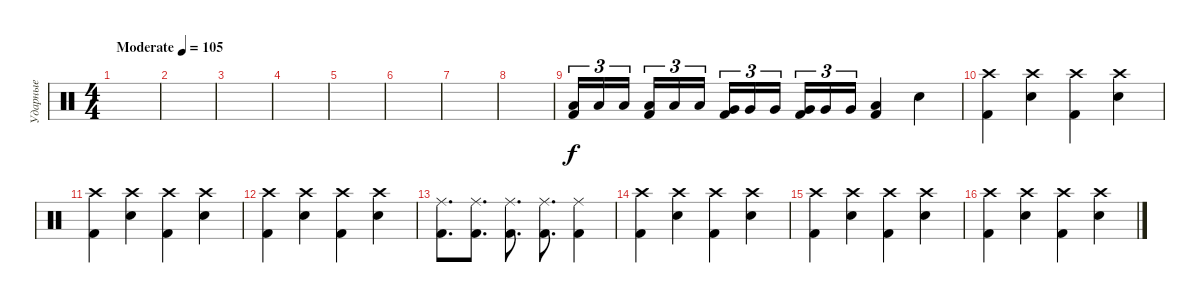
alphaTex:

\track ("Ударные" "Ударные") {instrument percussion}
\staff {score}
\articulation defaults
\ts (4 4)
\tempo (105 "Moderate")
\clef neutral
\ks c
|
|
|
|
|
|
|
|
("Kick (hit) 2" "Low Tom (hit)").16{tu (3 2)} "Low Tom (hit)".16{tu (3 2)} "Low Tom (hit)".16{tu (3 2) beam splitsecondary} ("Kick (hit) 2" "Low Tom (hit)").16{tu (3 2)} "Low Tom (hit)".16{tu (3 2)} "Low Tom (hit)".16{tu (3 2)} ("Kick (hit) 2" "Very Low Tom (hit)").16{tu (3 2)} "Very Low Tom (hit)".16{tu (3 2)} "Very Low Tom (hit)".16{tu (3 2) beam splitsecondary} ("Kick (hit) 2" "Very Low Tom (hit)").16{tu (3 2)} "Very Low Tom (hit)".16{tu (3 2)} "Very Low Tom (hit)".16{tu (3 2)} ("Kick (hit) 2" "Low Floor Tom (hit)").4 "Electric Snare (hit)".4 |
("Crash high (hit)" "Kick (hit) 2").4 ("Crash high (hit)" "Electric Snare (hit)").4 ("Kick (hit) 2" "Crash high (hit)").4 ("Crash high (hit)" "Electric Snare (hit)").4 |
("Crash high (hit)" "Kick (hit) 2").4 ("Crash high (hit)" "Electric Snare (hit)").4 ("Kick (hit) 2" "Crash high (hit)").4 ("Crash high (hit)" "Electric Snare (hit)").4 |
("Crash high (hit)" "Kick (hit) 2").4 ("Crash high (hit)" "Electric Snare (hit)").4 ("Kick (hit) 2" "Crash high (hit)").4 ("Crash high (hit)" "Electric Snare (hit)").4 |
("Ride (middle)" "Kick (hit) 2").8{d} ("Ride (middle)" "Kick (hit) 2").8{d} ("Ride (middle)" "Kick (hit) 2").8{d} ("Ride (middle)" "Kick (hit) 2").8{d} ("Kick (hit) 2" "Ride (middle)").4 |
("Crash high (hit)" "Kick (hit) 2").4 ("Crash high (hit)" "Electric Snare (hit)").4 ("Kick (hit) 2" "Crash high (hit)").4 ("Crash high (hit)" "Electric Snare (hit)").4 |
("Crash high (hit)" "Kick (hit) 2").4 ("Crash high (hit)" "Electric Snare (hit)").4 ("Kick (hit) 2" "Crash high (hit)").4 ("Crash high (hit)" "Electric Snare (hit)").4 |
("Crash high (hit)" "Kick (hit) 2").4 ("Crash high (hit)" "Electric Snare (hit)").4 ("Kick (hit) 2" "Crash high (hit)").4 ("Crash high (hit)" "Electric Snare (hit)").4
